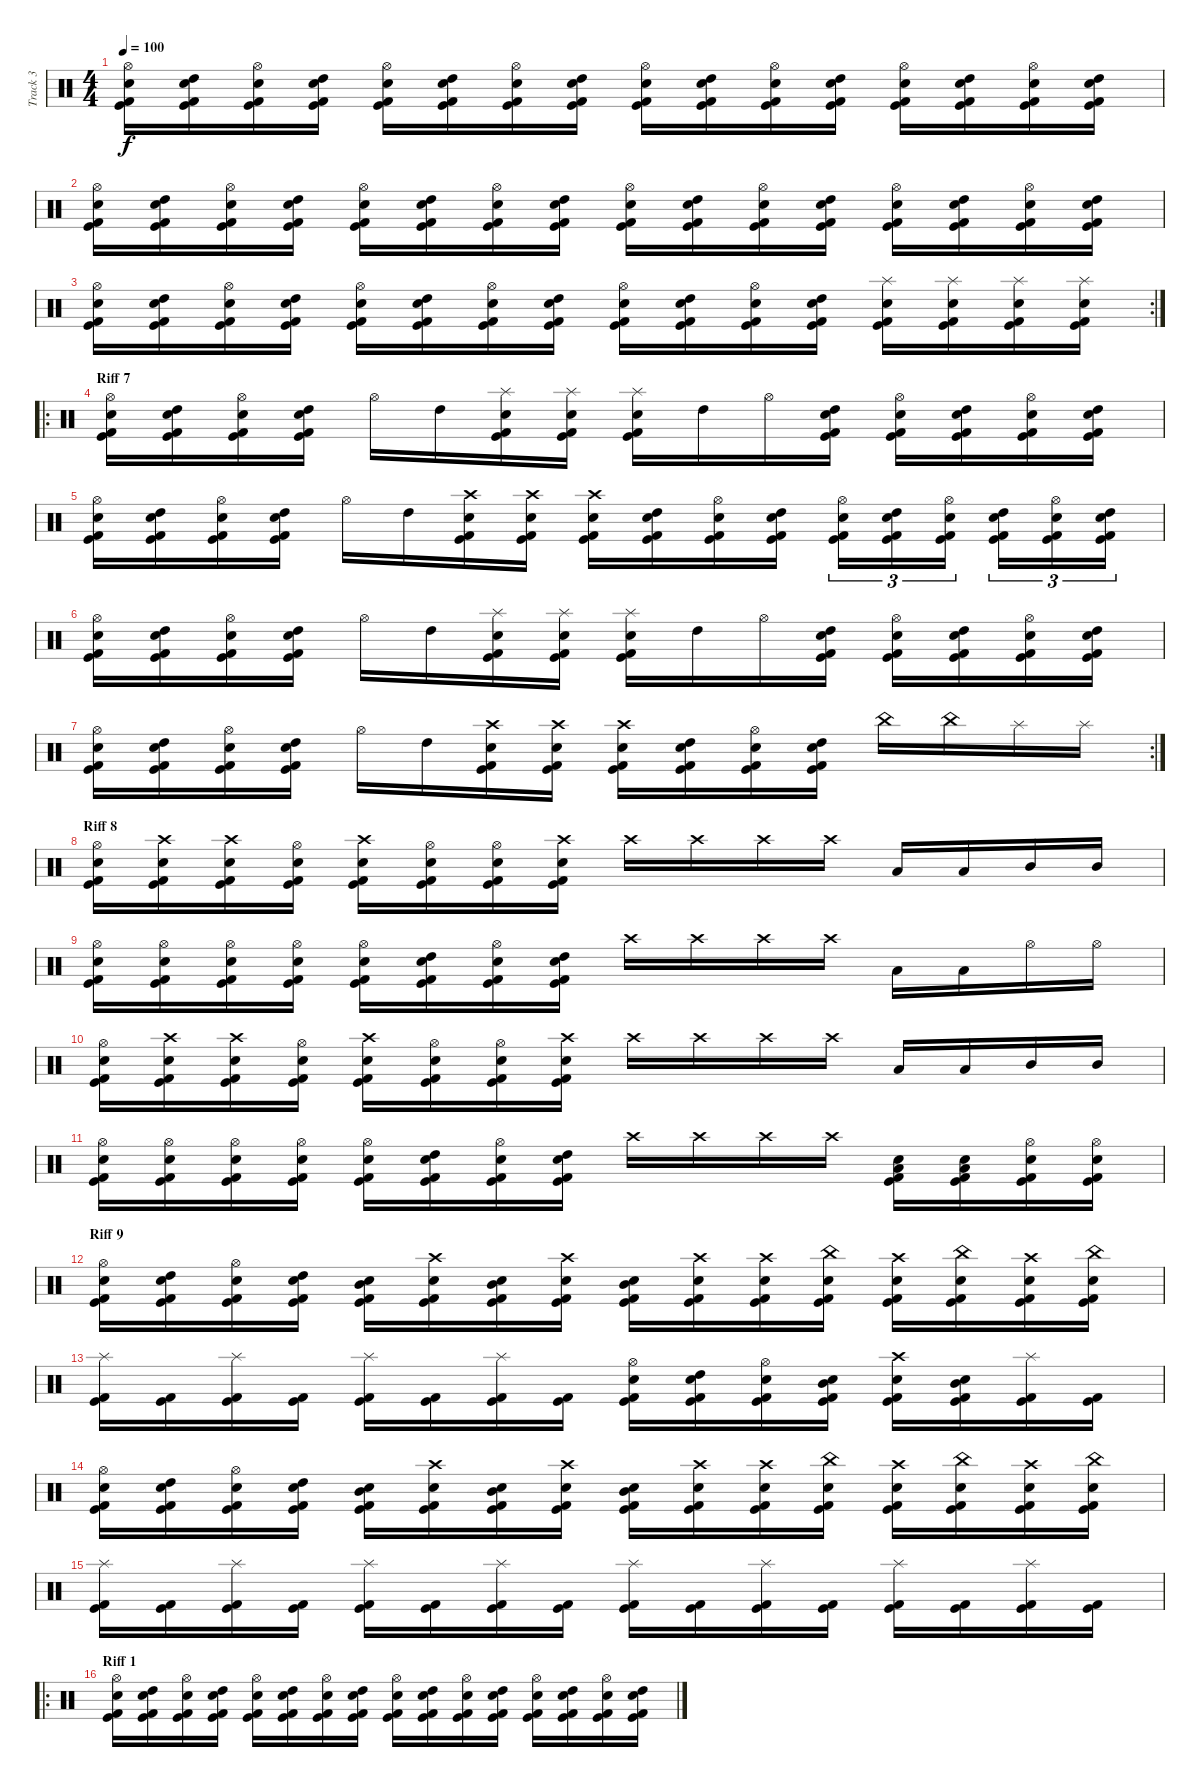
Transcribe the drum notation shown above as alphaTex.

\track ("Track 3" "Track 3") {instrument percussion}
\staff {score}
\articulation defaults
\ts (4 4)
\tempo 100
\clef neutral
\ks c
("Hi-Hat (open)" "Snare (hit) 2" "Kick (hit) 2" "Kick (hit)").16{dy f} ("High Tom (hit)" "Snare (hit) 2" "Kick (hit) 2" "Kick (hit)").16 ("Hi-Hat (open)" "Snare (hit) 2" "Kick (hit) 2" "Kick (hit)").16 ("High Tom (hit)" "Snare (hit) 2" "Kick (hit) 2" "Kick (hit)").16 ("Hi-Hat (open)" "Snare (hit) 2" "Kick (hit) 2" "Kick (hit)").16 ("High Tom (hit)" "Snare (hit) 2" "Kick (hit) 2" "Kick (hit)").16 ("Hi-Hat (open)" "Snare (hit) 2" "Kick (hit) 2" "Kick (hit)").16 ("High Tom (hit)" "Snare (hit) 2" "Kick (hit) 2" "Kick (hit)").16 ("Hi-Hat (open)" "Snare (hit) 2" "Kick (hit) 2" "Kick (hit)").16 ("High Tom (hit)" "Snare (hit) 2" "Kick (hit) 2" "Kick (hit)").16 ("Hi-Hat (open)" "Snare (hit) 2" "Kick (hit) 2" "Kick (hit)").16 ("High Tom (hit)" "Snare (hit) 2" "Kick (hit) 2" "Kick (hit)").16 ("Hi-Hat (open)" "Snare (hit) 2" "Kick (hit) 2" "Kick (hit)").16 ("High Tom (hit)" "Snare (hit) 2" "Kick (hit) 2" "Kick (hit)").16 ("Hi-Hat (open)" "Snare (hit) 2" "Kick (hit) 2" "Kick (hit)").16 ("High Tom (hit)" "Snare (hit) 2" "Kick (hit) 2" "Kick (hit)").16 |
("Hi-Hat (open)" "Snare (hit) 2" "Kick (hit) 2" "Kick (hit)").16 ("High Tom (hit)" "Snare (hit) 2" "Kick (hit) 2" "Kick (hit)").16 ("Hi-Hat (open)" "Snare (hit) 2" "Kick (hit) 2" "Kick (hit)").16 ("High Tom (hit)" "Snare (hit) 2" "Kick (hit) 2" "Kick (hit)").16 ("Hi-Hat (open)" "Snare (hit) 2" "Kick (hit) 2" "Kick (hit)").16 ("High Tom (hit)" "Snare (hit) 2" "Kick (hit) 2" "Kick (hit)").16 ("Hi-Hat (open)" "Snare (hit) 2" "Kick (hit) 2" "Kick (hit)").16 ("High Tom (hit)" "Snare (hit) 2" "Kick (hit) 2" "Kick (hit)").16 ("Hi-Hat (open)" "Snare (hit) 2" "Kick (hit) 2" "Kick (hit)").16 ("High Tom (hit)" "Snare (hit) 2" "Kick (hit) 2" "Kick (hit)").16 ("Hi-Hat (open)" "Snare (hit) 2" "Kick (hit) 2" "Kick (hit)").16 ("High Tom (hit)" "Snare (hit) 2" "Kick (hit) 2" "Kick (hit)").16 ("Hi-Hat (open)" "Snare (hit) 2" "Kick (hit) 2" "Kick (hit)").16 ("High Tom (hit)" "Snare (hit) 2" "Kick (hit) 2" "Kick (hit)").16 ("Hi-Hat (open)" "Snare (hit) 2" "Kick (hit) 2" "Kick (hit)").16 ("High Tom (hit)" "Snare (hit) 2" "Kick (hit) 2" "Kick (hit)").16 |
\rc 2
("Hi-Hat (open)" "Snare (hit) 2" "Kick (hit) 2" "Kick (hit)").16 ("High Tom (hit)" "Snare (hit) 2" "Kick (hit) 2" "Kick (hit)").16 ("Hi-Hat (open)" "Snare (hit) 2" "Kick (hit) 2" "Kick (hit)").16 ("High Tom (hit)" "Snare (hit) 2" "Kick (hit) 2" "Kick (hit)").16 ("Hi-Hat (open)" "Snare (hit) 2" "Kick (hit) 2" "Kick (hit)").16 ("High Tom (hit)" "Snare (hit) 2" "Kick (hit) 2" "Kick (hit)").16 ("Hi-Hat (open)" "Snare (hit) 2" "Kick (hit) 2" "Kick (hit)").16 ("High Tom (hit)" "Snare (hit) 2" "Kick (hit) 2" "Kick (hit)").16 ("Hi-Hat (open)" "Snare (hit) 2" "Kick (hit) 2" "Kick (hit)").16 ("High Tom (hit)" "Snare (hit) 2" "Kick (hit) 2" "Kick (hit)").16 ("Hi-Hat (open)" "Snare (hit) 2" "Kick (hit) 2" "Kick (hit)").16 ("High Tom (hit)" "Snare (hit) 2" "Kick (hit) 2" "Kick (hit)").16 ("Splash (hit)" "Snare (hit) 2" "Kick (hit) 2" "Kick (hit)").16 ("Splash (hit)" "Snare (hit) 2" "Kick (hit) 2" "Kick (hit)").16 ("Splash (hit)" "Snare (hit) 2" "Kick (hit) 2" "Kick (hit)").16 ("Splash (hit)" "Snare (hit) 2" "Kick (hit) 2" "Kick (hit)").16 |
\ro
\section ("" "Riff 7")
("Hi-Hat (open)" "Snare (hit) 2" "Kick (hit) 2" "Kick (hit)").16 ("High Tom (hit)" "Snare (hit) 2" "Kick (hit) 2" "Kick (hit)").16 ("Hi-Hat (open)" "Snare (hit) 2" "Kick (hit) 2" "Kick (hit)").16 ("High Tom (hit)" "Snare (hit) 2" "Kick (hit) 2" "Kick (hit)").16 "Hi-Hat (open)".16 "High Tom (hit)".16 ("Splash (hit)" "Snare (hit) 2" "Kick (hit) 2" "Kick (hit)").16 ("Splash (hit)" "Snare (hit) 2" "Kick (hit) 2" "Kick (hit)").16 ("Splash (hit)" "Snare (hit) 2" "Kick (hit) 2" "Kick (hit)").16 "High Tom (hit)".16 "Hi-Hat (open)".16 ("High Tom (hit)" "Snare (hit) 2" "Kick (hit) 2" "Kick (hit)").16 ("Hi-Hat (open)" "Snare (hit) 2" "Kick (hit) 2" "Kick (hit)").16 ("High Tom (hit)" "Snare (hit) 2" "Kick (hit) 2" "Kick (hit)").16 ("Hi-Hat (open)" "Snare (hit) 2" "Kick (hit) 2" "Kick (hit)").16 ("High Tom (hit)" "Snare (hit) 2" "Kick (hit) 2" "Kick (hit)").16 |
("Hi-Hat (open)" "Snare (hit) 2" "Kick (hit) 2" "Kick (hit)").16 ("High Tom (hit)" "Snare (hit) 2" "Kick (hit) 2" "Kick (hit)").16 ("Hi-Hat (open)" "Snare (hit) 2" "Kick (hit) 2" "Kick (hit)").16 ("High Tom (hit)" "Snare (hit) 2" "Kick (hit) 2" "Kick (hit)").16 "Hi-Hat (open)".16 "High Tom (hit)".16 ("Crash high (hit)" "Snare (hit) 2" "Kick (hit) 2" "Kick (hit)").16 ("Crash high (hit)" "Snare (hit) 2" "Kick (hit) 2" "Kick (hit)").16 ("Crash high (hit)" "Snare (hit) 2" "Kick (hit) 2" "Kick (hit)").16 ("High Tom (hit)" "Snare (hit) 2" "Kick (hit) 2" "Kick (hit)").16 ("Hi-Hat (open)" "Snare (hit) 2" "Kick (hit) 2" "Kick (hit)").16 ("High Tom (hit)" "Snare (hit) 2" "Kick (hit) 2" "Kick (hit)").16 ("Hi-Hat (open)" "Snare (hit) 2" "Kick (hit) 2" "Kick (hit)").16{tu (3 2)} ("High Tom (hit)" "Snare (hit) 2" "Kick (hit) 2" "Kick (hit)").16{tu (3 2)} ("Hi-Hat (open)" "Snare (hit) 2" "Kick (hit) 2" "Kick (hit)").16{tu (3 2)} ("High Tom (hit)" "Snare (hit) 2" "Kick (hit) 2" "Kick (hit)").16{tu (3 2)} ("Hi-Hat (open)" "Snare (hit) 2" "Kick (hit) 2" "Kick (hit)").16{tu (3 2)} ("High Tom (hit)" "Snare (hit) 2" "Kick (hit) 2" "Kick (hit)").16{tu (3 2)} |
("Hi-Hat (open)" "Snare (hit) 2" "Kick (hit) 2" "Kick (hit)").16 ("High Tom (hit)" "Snare (hit) 2" "Kick (hit) 2" "Kick (hit)").16 ("Hi-Hat (open)" "Snare (hit) 2" "Kick (hit) 2" "Kick (hit)").16 ("High Tom (hit)" "Snare (hit) 2" "Kick (hit) 2" "Kick (hit)").16 "Hi-Hat (open)".16 "High Tom (hit)".16 ("Splash (hit)" "Snare (hit) 2" "Kick (hit) 2" "Kick (hit)").16 ("Splash (hit)" "Snare (hit) 2" "Kick (hit) 2" "Kick (hit)").16 ("Splash (hit)" "Snare (hit) 2" "Kick (hit) 2" "Kick (hit)").16 "High Tom (hit)".16 "Hi-Hat (open)".16 ("High Tom (hit)" "Snare (hit) 2" "Kick (hit) 2" "Kick (hit)").16 ("Hi-Hat (open)" "Snare (hit) 2" "Kick (hit) 2" "Kick (hit)").16 ("High Tom (hit)" "Snare (hit) 2" "Kick (hit) 2" "Kick (hit)").16 ("Hi-Hat (open)" "Snare (hit) 2" "Kick (hit) 2" "Kick (hit)").16 ("High Tom (hit)" "Snare (hit) 2" "Kick (hit) 2" "Kick (hit)").16 |
\rc 2
("Hi-Hat (open)" "Snare (hit) 2" "Kick (hit) 2" "Kick (hit)").16 ("High Tom (hit)" "Snare (hit) 2" "Kick (hit) 2" "Kick (hit)").16 ("Hi-Hat (open)" "Snare (hit) 2" "Kick (hit) 2" "Kick (hit)").16 ("High Tom (hit)" "Snare (hit) 2" "Kick (hit) 2" "Kick (hit)").16 "Hi-Hat (open)".16 "High Tom (hit)".16 ("Crash high (hit)" "Snare (hit) 2" "Kick (hit) 2" "Kick (hit)").16 ("Crash high (hit)" "Snare (hit) 2" "Kick (hit) 2" "Kick (hit)").16 ("Crash high (hit)" "Snare (hit) 2" "Kick (hit) 2" "Kick (hit)").16 ("High Tom (hit)" "Snare (hit) 2" "Kick (hit) 2" "Kick (hit)").16 ("Hi-Hat (open)" "Snare (hit) 2" "Kick (hit) 2" "Kick (hit)").16 ("High Tom (hit)" "Snare (hit) 2" "Kick (hit) 2" "Kick (hit)").16 "China (hit)".16 "China (hit)".16 "Splash (hit)".16 "Splash (hit)".16 |
\section ("" "Riff 8")
("Hi-Hat (open)" "Snare (hit) 2" "Kick (hit) 2" "Kick (hit)").16 ("Crash high (hit)" "Snare (hit) 2" "Kick (hit) 2" "Kick (hit)").16 ("Crash high (hit)" "Snare (hit) 2" "Kick (hit) 2" "Kick (hit)").16 ("Hi-Hat (open)" "Snare (hit) 2" "Kick (hit) 2" "Kick (hit)").16 ("Crash high (hit)" "Snare (hit) 2" "Kick (hit) 2" "Kick (hit)").16 ("Hi-Hat (open)" "Snare (hit) 2" "Kick (hit) 2" "Kick (hit)").16 ("Hi-Hat (open)" "Snare (hit) 2" "Kick (hit) 2" "Kick (hit)").16 ("Crash high (hit)" "Snare (hit) 2" "Kick (hit) 2" "Kick (hit)").16 "Crash high (hit)".16 "Crash high (hit)".16 "Crash high (hit)".16 "Crash high (hit)".16 "Low Tom (hit)".16 "Low Tom (hit)".16 "Mid Tom (hit)".16 "Mid Tom (hit)".16 |
("Hi-Hat (open)" "Snare (hit) 2" "Kick (hit) 2" "Kick (hit)").16 ("Hi-Hat (open)" "Snare (hit) 2" "Kick (hit) 2" "Kick (hit)").16 ("Hi-Hat (open)" "Snare (hit) 2" "Kick (hit) 2" "Kick (hit)").16 ("Hi-Hat (open)" "Snare (hit) 2" "Kick (hit) 2" "Kick (hit)").16 ("Hi-Hat (open)" "Snare (hit) 2" "Kick (hit) 2" "Kick (hit)").16 ("High Tom (hit)" "Snare (hit) 2" "Kick (hit) 2" "Kick (hit)").16 ("Hi-Hat (open)" "Snare (hit) 2" "Kick (hit) 2" "Kick (hit)").16 ("High Tom (hit)" "Snare (hit) 2" "Kick (hit) 2" "Kick (hit)").16 "Crash high (hit)".16 "Crash high (hit)".16 "Crash high (hit)".16 "Crash high (hit)".16 "Low Tom (hit)".16 "Low Tom (hit)".16 "Hi-Hat (open)".16 "Hi-Hat (open)".16 |
("Hi-Hat (open)" "Snare (hit) 2" "Kick (hit) 2" "Kick (hit)").16 ("Crash high (hit)" "Snare (hit) 2" "Kick (hit) 2" "Kick (hit)").16 ("Crash high (hit)" "Snare (hit) 2" "Kick (hit) 2" "Kick (hit)").16 ("Hi-Hat (open)" "Snare (hit) 2" "Kick (hit) 2" "Kick (hit)").16 ("Crash high (hit)" "Snare (hit) 2" "Kick (hit) 2" "Kick (hit)").16 ("Hi-Hat (open)" "Snare (hit) 2" "Kick (hit) 2" "Kick (hit)").16 ("Hi-Hat (open)" "Snare (hit) 2" "Kick (hit) 2" "Kick (hit)").16 ("Crash high (hit)" "Snare (hit) 2" "Kick (hit) 2" "Kick (hit)").16 "Crash high (hit)".16 "Crash high (hit)".16 "Crash high (hit)".16 "Crash high (hit)".16 "Low Tom (hit)".16 "Low Tom (hit)".16 "Mid Tom (hit)".16 "Mid Tom (hit)".16 |
("Hi-Hat (open)" "Snare (hit) 2" "Kick (hit) 2" "Kick (hit)").16 ("Hi-Hat (open)" "Snare (hit) 2" "Kick (hit) 2" "Kick (hit)").16 ("Hi-Hat (open)" "Snare (hit) 2" "Kick (hit) 2" "Kick (hit)").16 ("Hi-Hat (open)" "Snare (hit) 2" "Kick (hit) 2" "Kick (hit)").16 ("Hi-Hat (open)" "Snare (hit) 2" "Kick (hit) 2" "Kick (hit)").16 ("High Tom (hit)" "Snare (hit) 2" "Kick (hit) 2" "Kick (hit)").16 ("Hi-Hat (open)" "Snare (hit) 2" "Kick (hit) 2" "Kick (hit)").16 ("High Tom (hit)" "Snare (hit) 2" "Kick (hit) 2" "Kick (hit)").16 "Crash high (hit)".16 "Crash high (hit)".16 "Crash high (hit)".16 "Crash high (hit)".16 ("Low Tom (hit)" "Snare (hit) 2" "Kick (hit) 2" "Kick (hit)").16 ("Low Tom (hit)" "Snare (hit) 2" "Kick (hit) 2" "Kick (hit)").16 ("Hi-Hat (open)" "Snare (hit) 2" "Kick (hit) 2" "Kick (hit)").16 ("Hi-Hat (open)" "Snare (hit) 2" "Kick (hit) 2" "Kick (hit)").16 |
\section ("" "Riff 9")
("Hi-Hat (open)" "Snare (hit) 2" "Kick (hit) 2" "Kick (hit)").16 ("High Tom (hit)" "Snare (hit) 2" "Kick (hit) 2" "Kick (hit)").16 ("Hi-Hat (open)" "Snare (hit) 2" "Kick (hit) 2" "Kick (hit)").16 ("High Tom (hit)" "Snare (hit) 2" "Kick (hit) 2" "Kick (hit)").16 ("Mid Tom (hit)" "Snare (hit) 2" "Kick (hit) 2" "Kick (hit)").16 ("Crash high (hit)" "Snare (hit) 2" "Kick (hit) 2" "Kick (hit)").16 ("Mid Tom (hit)" "Snare (hit) 2" "Kick (hit) 2" "Kick (hit)").16 ("Crash high (hit)" "Snare (hit) 2" "Kick (hit) 2" "Kick (hit)").16 ("Mid Tom (hit)" "Snare (hit) 2" "Kick (hit) 2" "Kick (hit)").16 ("Crash high (hit)" "Snare (hit) 2" "Kick (hit) 2" "Kick (hit)").16 ("Crash high (hit)" "Snare (hit) 2" "Kick (hit) 2" "Kick (hit)").16 ("China (hit)" "Snare (hit) 2" "Kick (hit) 2" "Kick (hit)").16 ("Crash high (hit)" "Snare (hit) 2" "Kick (hit) 2" "Kick (hit)").16 ("China (hit)" "Snare (hit) 2" "Kick (hit) 2" "Kick (hit)").16 ("Crash high (hit)" "Snare (hit) 2" "Kick (hit) 2" "Kick (hit)").16 ("China (hit)" "Snare (hit) 2" "Kick (hit) 2" "Kick (hit)").16 |
("Splash (hit)" "Kick (hit) 2" "Kick (hit)").16 ("Kick (hit) 2" "Kick (hit)").16 ("Splash (hit)" "Kick (hit) 2" "Kick (hit)").16 ("Kick (hit) 2" "Kick (hit)").16 ("Splash (hit)" "Kick (hit) 2" "Kick (hit)").16 ("Kick (hit) 2" "Kick (hit)").16 ("Splash (hit)" "Kick (hit) 2" "Kick (hit)").16 ("Kick (hit) 2" "Kick (hit)").16 ("Hi-Hat (open)" "Snare (hit) 2" "Kick (hit) 2" "Kick (hit)").16 ("High Tom (hit)" "Snare (hit) 2" "Kick (hit) 2" "Kick (hit)").16 ("Hi-Hat (open)" "Snare (hit) 2" "Kick (hit) 2" "Kick (hit)").16 ("Mid Tom (hit)" "Snare (hit) 2" "Kick (hit) 2" "Kick (hit)").16 ("Crash high (hit)" "Snare (hit) 2" "Kick (hit) 2" "Kick (hit)").16 ("Mid Tom (hit)" "Snare (hit) 2" "Kick (hit) 2" "Kick (hit)").16 ("Splash (hit)" "Kick (hit) 2" "Kick (hit)").16 ("Kick (hit) 2" "Kick (hit)").16 |
("Hi-Hat (open)" "Snare (hit) 2" "Kick (hit) 2" "Kick (hit)").16 ("High Tom (hit)" "Snare (hit) 2" "Kick (hit) 2" "Kick (hit)").16 ("Hi-Hat (open)" "Snare (hit) 2" "Kick (hit) 2" "Kick (hit)").16 ("High Tom (hit)" "Snare (hit) 2" "Kick (hit) 2" "Kick (hit)").16 ("Mid Tom (hit)" "Snare (hit) 2" "Kick (hit) 2" "Kick (hit)").16 ("Crash high (hit)" "Snare (hit) 2" "Kick (hit) 2" "Kick (hit)").16 ("Mid Tom (hit)" "Snare (hit) 2" "Kick (hit) 2" "Kick (hit)").16 ("Crash high (hit)" "Snare (hit) 2" "Kick (hit) 2" "Kick (hit)").16 ("Mid Tom (hit)" "Snare (hit) 2" "Kick (hit) 2" "Kick (hit)").16 ("Crash high (hit)" "Snare (hit) 2" "Kick (hit) 2" "Kick (hit)").16 ("Crash high (hit)" "Snare (hit) 2" "Kick (hit) 2" "Kick (hit)").16 ("China (hit)" "Snare (hit) 2" "Kick (hit) 2" "Kick (hit)").16 ("Crash high (hit)" "Snare (hit) 2" "Kick (hit) 2" "Kick (hit)").16 ("China (hit)" "Snare (hit) 2" "Kick (hit) 2" "Kick (hit)").16 ("Crash high (hit)" "Snare (hit) 2" "Kick (hit) 2" "Kick (hit)").16 ("China (hit)" "Snare (hit) 2" "Kick (hit) 2" "Kick (hit)").16 |
("Splash (hit)" "Kick (hit) 2" "Kick (hit)").16 ("Kick (hit) 2" "Kick (hit)").16 ("Splash (hit)" "Kick (hit) 2" "Kick (hit)").16 ("Kick (hit) 2" "Kick (hit)").16 ("Splash (hit)" "Kick (hit) 2" "Kick (hit)").16 ("Kick (hit) 2" "Kick (hit)").16 ("Splash (hit)" "Kick (hit) 2" "Kick (hit)").16 ("Kick (hit) 2" "Kick (hit)").16 ("Splash (hit)" "Kick (hit) 2" "Kick (hit)").16 ("Kick (hit) 2" "Kick (hit)").16 ("Splash (hit)" "Kick (hit) 2" "Kick (hit)").16 ("Kick (hit) 2" "Kick (hit)").16 ("Splash (hit)" "Kick (hit) 2" "Kick (hit)").16 ("Kick (hit) 2" "Kick (hit)").16 ("Splash (hit)" "Kick (hit) 2" "Kick (hit)").16 ("Kick (hit) 2" "Kick (hit)").16 |
\ro
\section ("" "Riff 1")
("Hi-Hat (open)" "Snare (hit) 2" "Kick (hit) 2" "Kick (hit)").16 ("High Tom (hit)" "Snare (hit) 2" "Kick (hit) 2" "Kick (hit)").16 ("Hi-Hat (open)" "Snare (hit) 2" "Kick (hit) 2" "Kick (hit)").16 ("High Tom (hit)" "Snare (hit) 2" "Kick (hit) 2" "Kick (hit)").16 ("Hi-Hat (open)" "Snare (hit) 2" "Kick (hit) 2" "Kick (hit)").16 ("High Tom (hit)" "Snare (hit) 2" "Kick (hit) 2" "Kick (hit)").16 ("Hi-Hat (open)" "Snare (hit) 2" "Kick (hit) 2" "Kick (hit)").16 ("High Tom (hit)" "Snare (hit) 2" "Kick (hit) 2" "Kick (hit)").16 ("Hi-Hat (open)" "Snare (hit) 2" "Kick (hit) 2" "Kick (hit)").16 ("High Tom (hit)" "Snare (hit) 2" "Kick (hit) 2" "Kick (hit)").16 ("Hi-Hat (open)" "Snare (hit) 2" "Kick (hit) 2" "Kick (hit)").16 ("High Tom (hit)" "Snare (hit) 2" "Kick (hit) 2" "Kick (hit)").16 ("Hi-Hat (open)" "Snare (hit) 2" "Kick (hit) 2" "Kick (hit)").16 ("High Tom (hit)" "Snare (hit) 2" "Kick (hit) 2" "Kick (hit)").16 ("Hi-Hat (open)" "Snare (hit) 2" "Kick (hit) 2" "Kick (hit)").16 ("High Tom (hit)" "Snare (hit) 2" "Kick (hit) 2" "Kick (hit)").16
